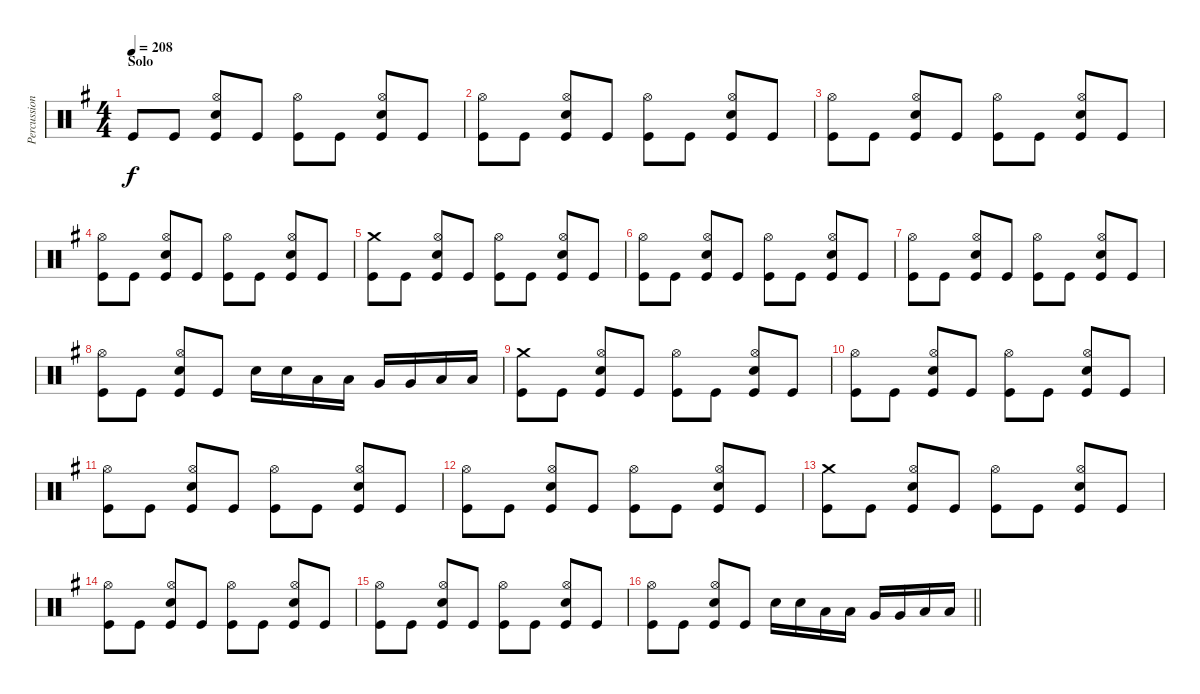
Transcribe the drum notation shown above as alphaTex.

\track ("Percussion" "Percussion") {instrument percussion}
\staff {score}
\articulation defaults
\ts (4 4)
\section ("" "Solo")
\tempo 208
\clef neutral
\ks g "Kick (hit)".8{dy f} "Kick (hit)".8
("Hi-Hat (open)" "Electric Snare (hit)" "Kick (hit)").8 "Kick (hit)".8 ("Hi-Hat (open)" "Kick (hit)").8 "Kick (hit)".8 ("Hi-Hat (open)" "Electric Snare (hit)" "Kick (hit)").8 "Kick (hit)".8 |
("Hi-Hat (open)" "Kick (hit)").8 "Kick (hit)".8 ("Hi-Hat (open)" "Electric Snare (hit)" "Kick (hit)").8 "Kick (hit)".8 ("Hi-Hat (open)" "Kick (hit)").8 "Kick (hit)".8 ("Hi-Hat (open)" "Electric Snare (hit)" "Kick (hit)").8 "Kick (hit)".8 |
("Hi-Hat (open)" "Kick (hit)").8 "Kick (hit)".8 ("Hi-Hat (open)" "Electric Snare (hit)" "Kick (hit)").8 "Kick (hit)".8 ("Hi-Hat (open)" "Kick (hit)").8 "Kick (hit)".8 ("Hi-Hat (open)" "Electric Snare (hit)" "Kick (hit)").8 "Kick (hit)".8 |
("Hi-Hat (open)" "Kick (hit)").8 "Kick (hit)".8 ("Hi-Hat (open)" "Electric Snare (hit)" "Kick (hit)").8 "Kick (hit)".8 ("Hi-Hat (open)" "Kick (hit)").8 "Kick (hit)".8 ("Hi-Hat (open)" "Electric Snare (hit)" "Kick (hit)").8 "Kick (hit)".8 |
("Crash medium (hit)" "Kick (hit)").8 "Kick (hit)".8 ("Hi-Hat (open)" "Electric Snare (hit)" "Kick (hit)").8 "Kick (hit)".8 ("Hi-Hat (open)" "Kick (hit)").8 "Kick (hit)".8 ("Hi-Hat (open)" "Electric Snare (hit)" "Kick (hit)").8 "Kick (hit)".8 |
("Hi-Hat (open)" "Kick (hit)").8 "Kick (hit)".8 ("Hi-Hat (open)" "Electric Snare (hit)" "Kick (hit)").8 "Kick (hit)".8 ("Hi-Hat (open)" "Kick (hit)").8 "Kick (hit)".8 ("Hi-Hat (open)" "Electric Snare (hit)" "Kick (hit)").8 "Kick (hit)".8 |
("Hi-Hat (open)" "Kick (hit)").8 "Kick (hit)".8 ("Hi-Hat (open)" "Electric Snare (hit)" "Kick (hit)").8 "Kick (hit)".8 ("Hi-Hat (open)" "Kick (hit)").8 "Kick (hit)".8 ("Hi-Hat (open)" "Electric Snare (hit)" "Kick (hit)").8 "Kick (hit)".8 |
("Hi-Hat (open)" "Kick (hit)").8 "Kick (hit)".8 ("Hi-Hat (open)" "Electric Snare (hit)" "Kick (hit)").8 "Kick (hit)".8 "Electric Snare (hit)".16 "Electric Snare (hit)".16 "Low Tom (hit)".16 "Low Tom (hit)".16 "Very Low Tom (hit)".16 "Very Low Tom (hit)".16 "Low Floor Tom (hit)".16 "Low Floor Tom (hit)".16 |
("Crash medium (hit)" "Kick (hit)").8 "Kick (hit)".8 ("Hi-Hat (open)" "Electric Snare (hit)" "Kick (hit)").8 "Kick (hit)".8 ("Hi-Hat (open)" "Kick (hit)").8 "Kick (hit)".8 ("Hi-Hat (open)" "Electric Snare (hit)" "Kick (hit)").8 "Kick (hit)".8 |
("Hi-Hat (open)" "Kick (hit)").8 "Kick (hit)".8 ("Hi-Hat (open)" "Electric Snare (hit)" "Kick (hit)").8 "Kick (hit)".8 ("Hi-Hat (open)" "Kick (hit)").8 "Kick (hit)".8 ("Hi-Hat (open)" "Electric Snare (hit)" "Kick (hit)").8 "Kick (hit)".8 |
("Hi-Hat (open)" "Kick (hit)").8 "Kick (hit)".8 ("Hi-Hat (open)" "Electric Snare (hit)" "Kick (hit)").8 "Kick (hit)".8 ("Hi-Hat (open)" "Kick (hit)").8 "Kick (hit)".8 ("Hi-Hat (open)" "Electric Snare (hit)" "Kick (hit)").8 "Kick (hit)".8 |
("Hi-Hat (open)" "Kick (hit)").8 "Kick (hit)".8 ("Hi-Hat (open)" "Electric Snare (hit)" "Kick (hit)").8 "Kick (hit)".8 ("Hi-Hat (open)" "Kick (hit)").8 "Kick (hit)".8 ("Hi-Hat (open)" "Electric Snare (hit)" "Kick (hit)").8 "Kick (hit)".8 |
("Crash medium (hit)" "Kick (hit)").8 "Kick (hit)".8 ("Hi-Hat (open)" "Electric Snare (hit)" "Kick (hit)").8 "Kick (hit)".8 ("Hi-Hat (open)" "Kick (hit)").8 "Kick (hit)".8 ("Hi-Hat (open)" "Electric Snare (hit)" "Kick (hit)").8 "Kick (hit)".8 |
("Hi-Hat (open)" "Kick (hit)").8 "Kick (hit)".8 ("Hi-Hat (open)" "Electric Snare (hit)" "Kick (hit)").8 "Kick (hit)".8 ("Hi-Hat (open)" "Kick (hit)").8 "Kick (hit)".8 ("Hi-Hat (open)" "Electric Snare (hit)" "Kick (hit)").8 "Kick (hit)".8 |
("Hi-Hat (open)" "Kick (hit)").8 "Kick (hit)".8 ("Hi-Hat (open)" "Electric Snare (hit)" "Kick (hit)").8 "Kick (hit)".8 ("Hi-Hat (open)" "Kick (hit)").8 "Kick (hit)".8 ("Hi-Hat (open)" "Electric Snare (hit)" "Kick (hit)").8 "Kick (hit)".8 |
\barLineRight lightlight
("Hi-Hat (open)" "Kick (hit)").8 "Kick (hit)".8 ("Hi-Hat (open)" "Electric Snare (hit)" "Kick (hit)").8 "Kick (hit)".8 "Electric Snare (hit)".16 "Electric Snare (hit)".16 "Low Tom (hit)".16 "Low Tom (hit)".16 "Very Low Tom (hit)".16 "Very Low Tom (hit)".16 "Low Floor Tom (hit)".16 "Low Floor Tom (hit)".16
